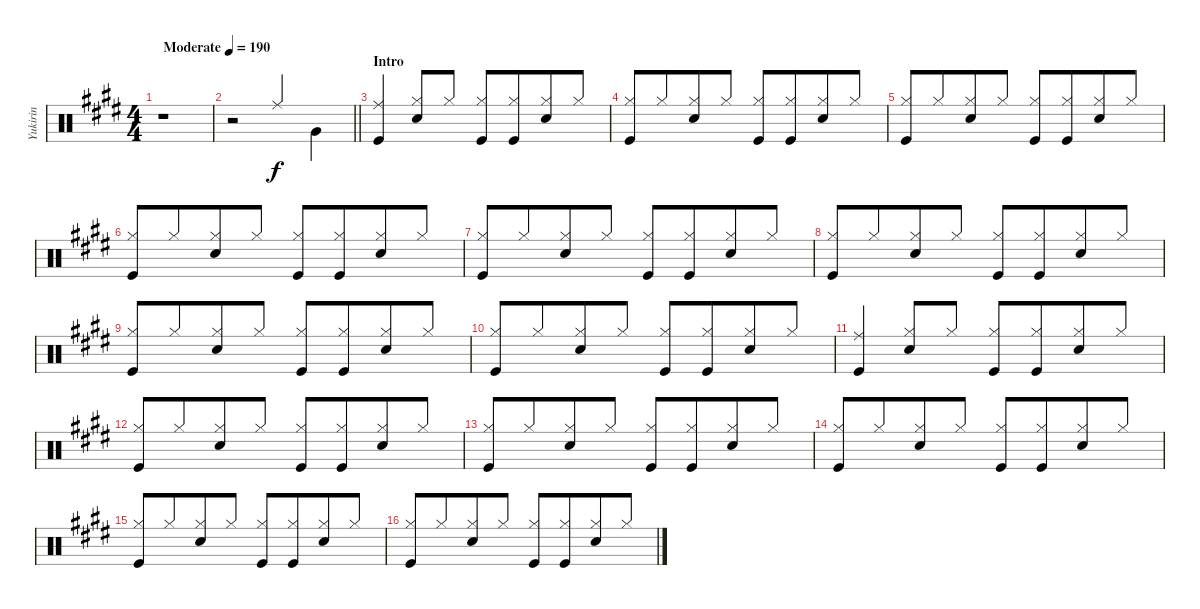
\track ("Yukirin" "Yukirin") {mute instrument percussion}
\staff {score}
\articulation defaults
\ts (4 4)
\tempo (190 "Moderate")
\clef neutral
\ks e
r.1{dy f} |
\barLineRight lightlight
r.2 "Ride (middle)".4{beam Up} "Very Low Tom (hit)".4{beam Down} |
\section ("" "Intro")
("Ride (middle)" "Kick (hit)").4{beam Up} ("Hi-Hat (closed)" "Snare (hit) 2").8{beam Up} "Hi-Hat (closed)".8{beam Up} ("Hi-Hat (closed)" "Kick (hit)").8{beam Up} ("Hi-Hat (closed)" "Kick (hit)").8{beam Up beam merge} ("Hi-Hat (closed)" "Snare (hit) 2").8{beam Up} "Hi-Hat (closed)".8{beam Up} |
("Hi-Hat (closed)" "Kick (hit)").8{beam Up} "Hi-Hat (closed)".8{beam Up beam merge} ("Hi-Hat (closed)" "Snare (hit) 2").8{beam Up} "Hi-Hat (closed)".8{beam Up} ("Hi-Hat (closed)" "Kick (hit)").8{beam Up} ("Hi-Hat (closed)" "Kick (hit)").8{beam Up beam merge} ("Hi-Hat (closed)" "Snare (hit) 2").8{beam Up} "Hi-Hat (closed)".8{beam Up} |
("Hi-Hat (closed)" "Kick (hit)").8{beam Up} "Hi-Hat (closed)".8{beam Up beam merge} ("Hi-Hat (closed)" "Snare (hit) 2").8{beam Up} "Hi-Hat (closed)".8{beam Up} ("Hi-Hat (closed)" "Kick (hit)").8{beam Up} ("Hi-Hat (closed)" "Kick (hit)").8{beam Up beam merge} ("Hi-Hat (closed)" "Snare (hit) 2").8{beam Up} "Hi-Hat (closed)".8{beam Up} |
("Hi-Hat (closed)" "Kick (hit)").8{beam Up} "Hi-Hat (closed)".8{beam Up beam merge} ("Hi-Hat (closed)" "Snare (hit) 2").8{beam Up} "Hi-Hat (closed)".8{beam Up} ("Hi-Hat (closed)" "Kick (hit)").8{beam Up} ("Hi-Hat (closed)" "Kick (hit)").8{beam Up beam merge} ("Hi-Hat (closed)" "Snare (hit) 2").8{beam Up} "Hi-Hat (closed)".8{beam Up} |
("Hi-Hat (closed)" "Kick (hit)").8{beam Up} "Hi-Hat (closed)".8{beam Up beam merge} ("Hi-Hat (closed)" "Snare (hit) 2").8{beam Up} "Hi-Hat (closed)".8{beam Up} ("Hi-Hat (closed)" "Kick (hit)").8{beam Up} ("Hi-Hat (closed)" "Kick (hit)").8{beam Up beam merge} ("Hi-Hat (closed)" "Snare (hit) 2").8{beam Up} "Hi-Hat (closed)".8{beam Up} |
("Hi-Hat (closed)" "Kick (hit)").8{beam Up} "Hi-Hat (closed)".8{beam Up beam merge} ("Hi-Hat (closed)" "Snare (hit) 2").8{beam Up} "Hi-Hat (closed)".8{beam Up} ("Hi-Hat (closed)" "Kick (hit)").8{beam Up} ("Hi-Hat (closed)" "Kick (hit)").8{beam Up beam merge} ("Hi-Hat (closed)" "Snare (hit) 2").8{beam Up} "Hi-Hat (closed)".8{beam Up} |
("Hi-Hat (closed)" "Kick (hit)").8{beam Up} "Hi-Hat (closed)".8{beam Up beam merge} ("Hi-Hat (closed)" "Snare (hit) 2").8{beam Up} "Hi-Hat (closed)".8{beam Up} ("Hi-Hat (closed)" "Kick (hit)").8{beam Up} ("Hi-Hat (closed)" "Kick (hit)").8{beam Up beam merge} ("Hi-Hat (closed)" "Snare (hit) 2").8{beam Up} "Hi-Hat (closed)".8{beam Up} |
("Hi-Hat (closed)" "Kick (hit)").8{beam Up} "Hi-Hat (closed)".8{beam Up beam merge} ("Hi-Hat (closed)" "Snare (hit) 2").8{beam Up} "Hi-Hat (closed)".8{beam Up} ("Hi-Hat (closed)" "Kick (hit)").8{beam Up} ("Hi-Hat (closed)" "Kick (hit)").8{beam Up beam merge} ("Hi-Hat (closed)" "Snare (hit) 2").8{beam Up} "Hi-Hat (closed)".8{beam Up} |
("Ride (middle)" "Kick (hit)").4{beam Up} ("Hi-Hat (closed)" "Snare (hit) 2").8{beam Up} "Hi-Hat (closed)".8{beam Up} ("Hi-Hat (closed)" "Kick (hit)").8{beam Up} ("Hi-Hat (closed)" "Kick (hit)").8{beam Up beam merge} ("Hi-Hat (closed)" "Snare (hit) 2").8{beam Up} "Hi-Hat (closed)".8{beam Up} |
("Hi-Hat (closed)" "Kick (hit)").8{beam Up} "Hi-Hat (closed)".8{beam Up beam merge} ("Hi-Hat (closed)" "Snare (hit) 2").8{beam Up} "Hi-Hat (closed)".8{beam Up} ("Hi-Hat (closed)" "Kick (hit)").8{beam Up} ("Hi-Hat (closed)" "Kick (hit)").8{beam Up beam merge} ("Hi-Hat (closed)" "Snare (hit) 2").8{beam Up} "Hi-Hat (closed)".8{beam Up} |
("Hi-Hat (closed)" "Kick (hit)").8{beam Up} "Hi-Hat (closed)".8{beam Up beam merge} ("Hi-Hat (closed)" "Snare (hit) 2").8{beam Up} "Hi-Hat (closed)".8{beam Up} ("Hi-Hat (closed)" "Kick (hit)").8{beam Up} ("Hi-Hat (closed)" "Kick (hit)").8{beam Up beam merge} ("Hi-Hat (closed)" "Snare (hit) 2").8{beam Up} "Hi-Hat (closed)".8{beam Up} |
("Hi-Hat (closed)" "Kick (hit)").8{beam Up} "Hi-Hat (closed)".8{beam Up beam merge} ("Hi-Hat (closed)" "Snare (hit) 2").8{beam Up} "Hi-Hat (closed)".8{beam Up} ("Hi-Hat (closed)" "Kick (hit)").8{beam Up} ("Hi-Hat (closed)" "Kick (hit)").8{beam Up beam merge} ("Hi-Hat (closed)" "Snare (hit) 2").8{beam Up} "Hi-Hat (closed)".8{beam Up} |
("Hi-Hat (closed)" "Kick (hit)").8{beam Up} "Hi-Hat (closed)".8{beam Up beam merge} ("Hi-Hat (closed)" "Snare (hit) 2").8{beam Up} "Hi-Hat (closed)".8{beam Up} ("Hi-Hat (closed)" "Kick (hit)").8{beam Up} ("Hi-Hat (closed)" "Kick (hit)").8{beam Up beam merge} ("Hi-Hat (closed)" "Snare (hit) 2").8{beam Up} "Hi-Hat (closed)".8{beam Up} |
("Hi-Hat (closed)" "Kick (hit)").8{beam Up} "Hi-Hat (closed)".8{beam Up beam merge} ("Hi-Hat (closed)" "Snare (hit) 2").8{beam Up} "Hi-Hat (closed)".8{beam Up} ("Hi-Hat (closed)" "Kick (hit)").8{beam Up} ("Hi-Hat (closed)" "Kick (hit)").8{beam Up beam merge} ("Hi-Hat (closed)" "Snare (hit) 2").8{beam Up} "Hi-Hat (closed)".8{beam Up}
